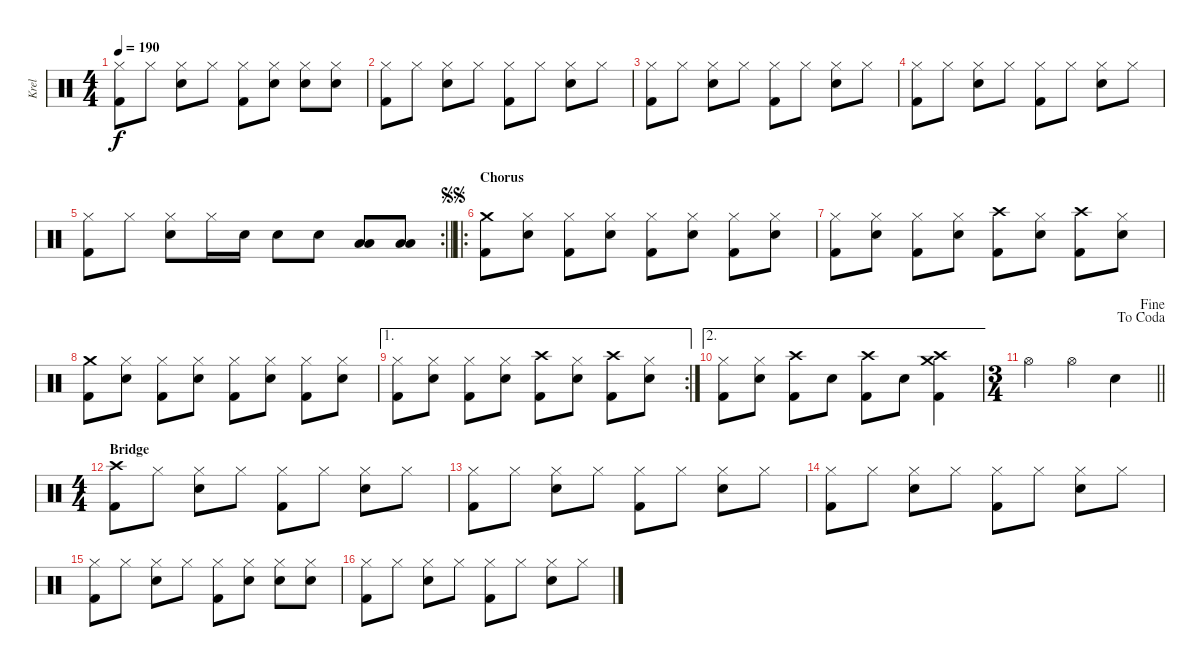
\track ("Krel" "Krel") {instrument percussion}
\staff {score}
\articulation defaults
\ts (4 4)
\tempo 190
\clef neutral
\ks c
("Hi-Hat (closed)" "Kick (hit) 2").8{dy f} "Hi-Hat (closed)".8 ("Hi-Hat (closed)" "Snare (hit) 2").8 "Hi-Hat (closed)".8 ("Hi-Hat (closed)" "Kick (hit) 2").8 ("Hi-Hat (closed)" "Snare (hit) 2").8 ("Hi-Hat (closed)" "Snare (hit) 2").8 ("Hi-Hat (closed)" "Snare (hit) 2").8 |
("Hi-Hat (closed)" "Kick (hit) 2").8 "Hi-Hat (closed)".8 ("Hi-Hat (closed)" "Snare (hit) 2").8 "Hi-Hat (closed)".8 ("Hi-Hat (closed)" "Kick (hit) 2").8 "Hi-Hat (closed)".8 ("Hi-Hat (closed)" "Snare (hit) 2").8 "Hi-Hat (closed)".8 |
("Hi-Hat (closed)" "Kick (hit) 2").8 "Hi-Hat (closed)".8 ("Hi-Hat (closed)" "Snare (hit) 2").8 "Hi-Hat (closed)".8 ("Hi-Hat (closed)" "Kick (hit) 2").8 "Hi-Hat (closed)".8 ("Hi-Hat (closed)" "Snare (hit) 2").8 "Hi-Hat (closed)".8 |
("Hi-Hat (closed)" "Kick (hit) 2").8 "Hi-Hat (closed)".8 ("Hi-Hat (closed)" "Snare (hit) 2").8 "Hi-Hat (closed)".8 ("Hi-Hat (closed)" "Kick (hit) 2").8 "Hi-Hat (closed)".8 ("Hi-Hat (closed)" "Snare (hit) 2").8 "Hi-Hat (closed)".8 |
\rc 2
\barLineRight lightlight
("Hi-Hat (closed)" "Kick (hit) 2").8 "Hi-Hat (closed)".8 ("Hi-Hat (closed)" "Snare (hit) 2").8 "Hi-Hat (closed)".16 "Snare (hit) 2".16 "Snare (hit) 2".8 "Snare (hit) 2".8 ("Low Tom (hit)" "Low Floor Tom (hit)").8 ("Low Tom (hit)" "Low Floor Tom (hit)").8 |
\ro
\section ("" "Chorus")
\jump segnosegno
("Crash medium (hit)" "Kick (hit) 2").8 ("Hi-Hat (closed)" "Snare (hit) 2").8 ("Hi-Hat (closed)" "Kick (hit) 2").8 ("Hi-Hat (closed)" "Snare (hit) 2").8 ("Hi-Hat (closed)" "Kick (hit) 2").8 ("Hi-Hat (closed)" "Snare (hit) 2").8 ("Hi-Hat (closed)" "Kick (hit) 2").8 ("Hi-Hat (closed)" "Snare (hit) 2").8 |
("Hi-Hat (closed)" "Kick (hit) 2").8 ("Hi-Hat (closed)" "Snare (hit) 2").8 ("Hi-Hat (closed)" "Kick (hit) 2").8 ("Hi-Hat (closed)" "Snare (hit) 2").8 ("Crash high (hit)" "Kick (hit) 2").8 ("Hi-Hat (closed)" "Snare (hit) 2").8 ("Crash high (hit)" "Kick (hit) 2").8 ("Hi-Hat (closed)" "Snare (hit) 2").8 |
("Crash medium (hit)" "Kick (hit) 2").8 ("Hi-Hat (closed)" "Snare (hit) 2").8 ("Hi-Hat (closed)" "Kick (hit) 2").8 ("Hi-Hat (closed)" "Snare (hit) 2").8 ("Hi-Hat (closed)" "Kick (hit) 2").8 ("Hi-Hat (closed)" "Snare (hit) 2").8 ("Hi-Hat (closed)" "Kick (hit) 2").8 ("Hi-Hat (closed)" "Snare (hit) 2").8 |
\ae 1
\rc 2
("Hi-Hat (closed)" "Kick (hit) 2").8 ("Hi-Hat (closed)" "Snare (hit) 2").8 ("Hi-Hat (closed)" "Kick (hit) 2").8 ("Hi-Hat (closed)" "Snare (hit) 2").8 ("Crash high (hit)" "Kick (hit) 2").8 ("Hi-Hat (closed)" "Snare (hit) 2").8 ("Crash high (hit)" "Kick (hit) 2").8 ("Hi-Hat (closed)" "Snare (hit) 2").8 |
\ae 2
("Hi-Hat (closed)" "Kick (hit) 2").8 ("Hi-Hat (closed)" "Snare (hit) 2").8 ("Crash high (hit)" "Kick (hit) 2").8 "Snare (hit) 2".8 ("Crash high (hit)" "Kick (hit) 2").8 "Snare (hit) 2".8 ("Crash medium (hit)" "Crash high (hit)" "Kick (hit) 2").4 |
\ts (3 4)
\jump fine
\jump dacoda
\barLineRight lightlight "Hi-Hat (open)".4 "Hi-Hat (open)".4 "Snare (hit) 2".4
|
\ts (4 4)
\section ("" "Bridge")
("Crash high (hit)" "Kick (hit) 2").8 "Hi-Hat (closed)".8 ("Hi-Hat (closed)" "Snare (hit) 2").8 "Hi-Hat (closed)".8 ("Hi-Hat (closed)" "Kick (hit) 2").8 "Hi-Hat (closed)".8 ("Hi-Hat (closed)" "Snare (hit) 2").8 "Hi-Hat (closed)".8 |
("Hi-Hat (closed)" "Kick (hit) 2").8 "Hi-Hat (closed)".8 ("Hi-Hat (closed)" "Snare (hit) 2").8 "Hi-Hat (closed)".8 ("Hi-Hat (closed)" "Kick (hit) 2").8 "Hi-Hat (closed)".8 ("Hi-Hat (closed)" "Snare (hit) 2").8 "Hi-Hat (closed)".8 |
("Hi-Hat (closed)" "Kick (hit) 2").8 "Hi-Hat (closed)".8 ("Hi-Hat (closed)" "Snare (hit) 2").8 "Hi-Hat (closed)".8 ("Hi-Hat (closed)" "Kick (hit) 2").8 "Hi-Hat (closed)".8 ("Hi-Hat (closed)" "Snare (hit) 2").8 "Hi-Hat (closed)".8 |
("Hi-Hat (closed)" "Kick (hit) 2").8 "Hi-Hat (closed)".8 ("Hi-Hat (closed)" "Snare (hit) 2").8 "Hi-Hat (closed)".8 ("Hi-Hat (closed)" "Kick (hit) 2").8 ("Hi-Hat (closed)" "Snare (hit) 2").8 ("Hi-Hat (closed)" "Snare (hit) 2").8 ("Hi-Hat (closed)" "Snare (hit) 2").8 |
("Hi-Hat (closed)" "Kick (hit) 2").8 "Hi-Hat (closed)".8 ("Hi-Hat (closed)" "Snare (hit) 2").8 "Hi-Hat (closed)".8 ("Hi-Hat (closed)" "Kick (hit) 2").8 "Hi-Hat (closed)".8 ("Hi-Hat (closed)" "Snare (hit) 2").8 "Hi-Hat (closed)".8
